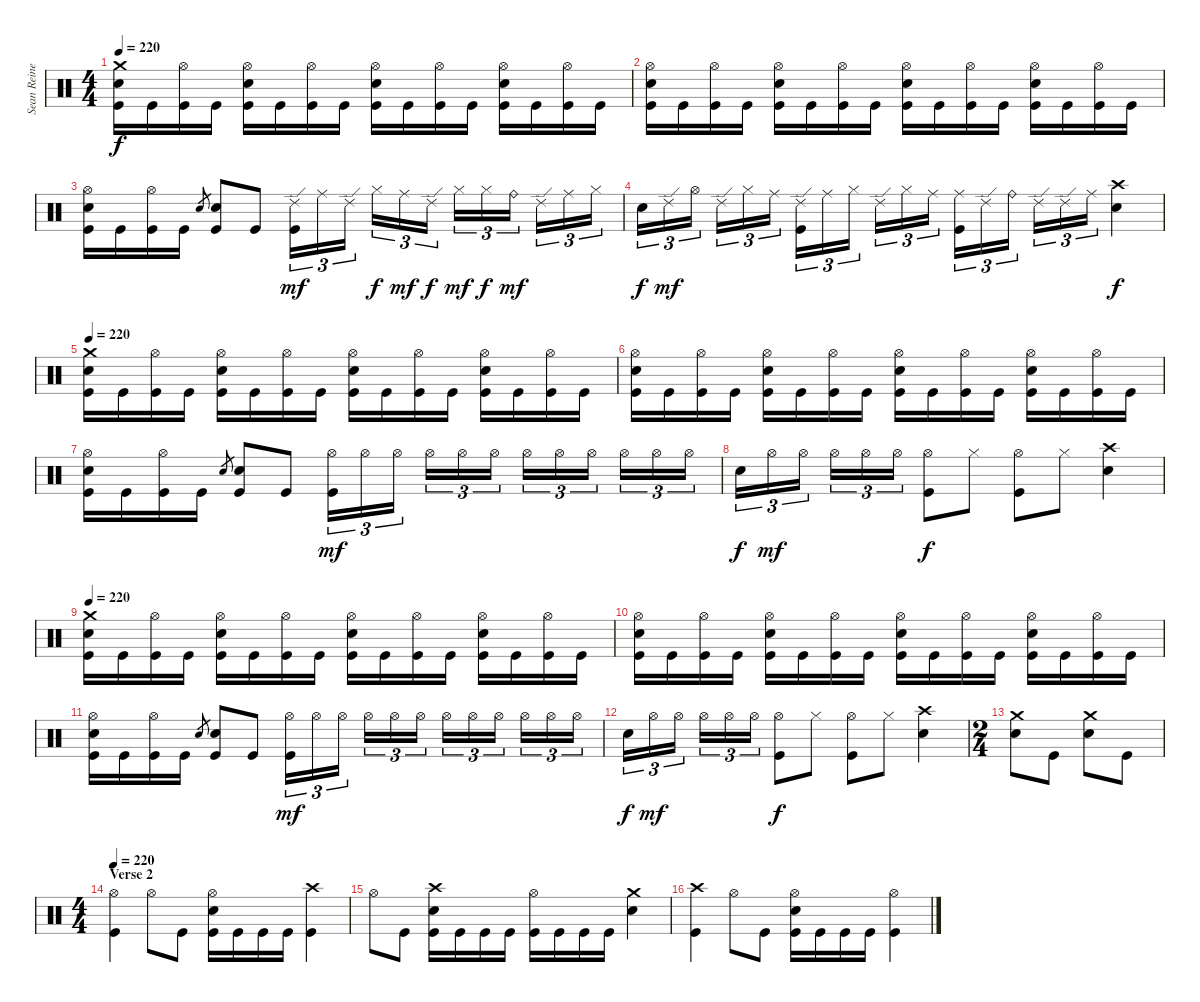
\track ("Sean Reinert " "Sean Reine") {instrument percussion}
\staff {score}
\articulation defaults
\ts (4 4)
\tempo 220
\clef neutral
\ks c
("Crash medium (hit)" "Electric Snare (hit)" "Kick (hit)").16{dy f} "Kick (hit)".16 ("Hi-Hat (open)" "Kick (hit)").16 "Kick (hit)".16 ("Hi-Hat (open)" "Electric Snare (hit)" "Kick (hit)").16 "Kick (hit)".16 ("Hi-Hat (open)" "Kick (hit)").16 "Kick (hit)".16 ("Hi-Hat (open)" "Electric Snare (hit)" "Kick (hit)").16 "Kick (hit)".16 ("Hi-Hat (open)" "Kick (hit)").16 "Kick (hit)".16 ("Hi-Hat (open)" "Electric Snare (hit)" "Kick (hit)").16 "Kick (hit)".16 ("Hi-Hat (open)" "Kick (hit)").16 "Kick (hit)".16 |
("Hi-Hat (open)" "Electric Snare (hit)" "Kick (hit)").16 "Kick (hit)".16 ("Hi-Hat (open)" "Kick (hit)").16 "Kick (hit)".16 ("Hi-Hat (open)" "Electric Snare (hit)" "Kick (hit)").16 "Kick (hit)".16 ("Hi-Hat (open)" "Kick (hit)").16 "Kick (hit)".16 ("Hi-Hat (open)" "Electric Snare (hit)" "Kick (hit)").16 "Kick (hit)".16 ("Hi-Hat (open)" "Kick (hit)").16 "Kick (hit)".16 ("Hi-Hat (open)" "Electric Snare (hit)" "Kick (hit)").16 "Kick (hit)".16 ("Hi-Hat (open)" "Kick (hit)").16 "Kick (hit)".16 |
("Hi-Hat (open)" "Electric Snare (hit)" "Kick (hit)").16 "Kick (hit)".16 ("Hi-Hat (open)" "Kick (hit)").16 "Kick (hit)".16 "Electric Snare (hit)".8{gr} ("Electric Snare (hit)" "Kick (hit)").8 "Kick (hit)".8 ("Ride (edge) 2" "Kick (hit)").16{tu (3 2) dy mf} "Ride (middle)".16{tu (3 2)} "Ride (edge) 2".16{tu (3 2)} "Hi-Hat (closed)".16{tu (3 2) dy f} "Ride (middle)".16{tu (3 2) dy mf} "Ride (edge) 2".16{tu (3 2) dy f} "Hi-Hat (closed)".16{tu (3 2) dy mf} "Hi-Hat (closed)".16{tu (3 2) dy f} "Ride (bell)".16{tu (3 2) dy mf} "Ride (edge) 2".16{tu (3 2)} "Ride (middle)".16{tu (3 2)} "Hi-Hat (closed)".16{tu (3 2)} |
"Electric Snare (hit)".16{tu (3 2) dy f} "Ride (edge) 2".16{tu (3 2) dy mf} "Hi-Hat (open)".16{tu (3 2)} "Ride (edge) 2".16{tu (3 2)} "Hi-Hat (closed)".16{tu (3 2)} "Ride (middle)".16{tu (3 2)} ("Ride (edge) 2" "Kick (hit)").16{tu (3 2)} "Ride (middle)".16{tu (3 2)} "Hi-Hat (closed)".16{tu (3 2)} "Ride (edge) 2".16{tu (3 2)} "Hi-Hat (closed)".16{tu (3 2)} "Ride (middle)".16{tu (3 2)} ("Ride (middle)" "Kick (hit)").16{tu (3 2)} "Ride (edge) 2".16{tu (3 2)} "Ride (bell)".16{tu (3 2)} "Ride (edge) 2".16{tu (3 2)} "Ride (edge) 2".16{tu (3 2)} "Ride (middle)".16{tu (3 2)} ("Crash high (hit)" "Electric Snare (hit)").4{dy f} |
\tempo 220
("Crash medium (hit)" "Electric Snare (hit)" "Kick (hit)").16 "Kick (hit)".16 ("Hi-Hat (open)" "Kick (hit)").16 "Kick (hit)".16 ("Hi-Hat (open)" "Electric Snare (hit)" "Kick (hit)").16 "Kick (hit)".16 ("Hi-Hat (open)" "Kick (hit)").16 "Kick (hit)".16 ("Hi-Hat (open)" "Electric Snare (hit)" "Kick (hit)").16 "Kick (hit)".16 ("Hi-Hat (open)" "Kick (hit)").16 "Kick (hit)".16 ("Hi-Hat (open)" "Electric Snare (hit)" "Kick (hit)").16 "Kick (hit)".16 ("Hi-Hat (open)" "Kick (hit)").16 "Kick (hit)".16 |
("Hi-Hat (open)" "Electric Snare (hit)" "Kick (hit)").16 "Kick (hit)".16 ("Hi-Hat (open)" "Kick (hit)").16 "Kick (hit)".16 ("Hi-Hat (open)" "Electric Snare (hit)" "Kick (hit)").16 "Kick (hit)".16 ("Hi-Hat (open)" "Kick (hit)").16 "Kick (hit)".16 ("Hi-Hat (open)" "Electric Snare (hit)" "Kick (hit)").16 "Kick (hit)".16 ("Hi-Hat (open)" "Kick (hit)").16 "Kick (hit)".16 ("Hi-Hat (open)" "Electric Snare (hit)" "Kick (hit)").16 "Kick (hit)".16 ("Hi-Hat (open)" "Kick (hit)").16 "Kick (hit)".16 |
("Hi-Hat (open)" "Electric Snare (hit)" "Kick (hit)").16 "Kick (hit)".16 ("Hi-Hat (open)" "Kick (hit)").16 "Kick (hit)".16 "Electric Snare (hit)".8{gr} ("Electric Snare (hit)" "Kick (hit)").8 "Kick (hit)".8 ("Hi-Hat (open)" "Kick (hit)").16{tu (3 2) dy mf} "Hi-Hat (open)".16{tu (3 2)} "Hi-Hat (open)".16{tu (3 2)} "Hi-Hat (open)".16{tu (3 2)} "Hi-Hat (open)".16{tu (3 2)} "Hi-Hat (open)".16{tu (3 2)} "Hi-Hat (open)".16{tu (3 2)} "Hi-Hat (open)".16{tu (3 2)} "Hi-Hat (open)".16{tu (3 2)} "Hi-Hat (open)".16{tu (3 2)} "Hi-Hat (open)".16{tu (3 2)} "Hi-Hat (open)".16{tu (3 2)} |
"Electric Snare (hit)".16{tu (3 2) dy f} "Hi-Hat (open)".16{tu (3 2) dy mf} "Hi-Hat (open)".16{tu (3 2)} "Hi-Hat (open)".16{tu (3 2)} "Hi-Hat (open)".16{tu (3 2)} "Hi-Hat (open)".16{tu (3 2)} ("Hi-Hat (open)" "Kick (hit)").8{dy f} "Hi-Hat (closed)".8 ("Hi-Hat (open)" "Kick (hit)").8 "Hi-Hat (closed)".8 ("Crash high (hit)" "Electric Snare (hit)").4 |
\tempo 220
("Crash medium (hit)" "Electric Snare (hit)" "Kick (hit)").16 "Kick (hit)".16 ("Hi-Hat (open)" "Kick (hit)").16 "Kick (hit)".16 ("Hi-Hat (open)" "Electric Snare (hit)" "Kick (hit)").16 "Kick (hit)".16 ("Hi-Hat (open)" "Kick (hit)").16 "Kick (hit)".16 ("Hi-Hat (open)" "Electric Snare (hit)" "Kick (hit)").16 "Kick (hit)".16 ("Hi-Hat (open)" "Kick (hit)").16 "Kick (hit)".16 ("Hi-Hat (open)" "Electric Snare (hit)" "Kick (hit)").16 "Kick (hit)".16 ("Hi-Hat (open)" "Kick (hit)").16 "Kick (hit)".16 |
("Hi-Hat (open)" "Electric Snare (hit)" "Kick (hit)").16 "Kick (hit)".16 ("Hi-Hat (open)" "Kick (hit)").16 "Kick (hit)".16 ("Hi-Hat (open)" "Electric Snare (hit)" "Kick (hit)").16 "Kick (hit)".16 ("Hi-Hat (open)" "Kick (hit)").16 "Kick (hit)".16 ("Hi-Hat (open)" "Electric Snare (hit)" "Kick (hit)").16 "Kick (hit)".16 ("Hi-Hat (open)" "Kick (hit)").16 "Kick (hit)".16 ("Hi-Hat (open)" "Electric Snare (hit)" "Kick (hit)").16 "Kick (hit)".16 ("Hi-Hat (open)" "Kick (hit)").16 "Kick (hit)".16 |
("Hi-Hat (open)" "Electric Snare (hit)" "Kick (hit)").16 "Kick (hit)".16 ("Hi-Hat (open)" "Kick (hit)").16 "Kick (hit)".16 "Electric Snare (hit)".8{gr} ("Electric Snare (hit)" "Kick (hit)").8 "Kick (hit)".8 ("Hi-Hat (open)" "Kick (hit)").16{tu (3 2) dy mf} "Hi-Hat (open)".16{tu (3 2)} "Hi-Hat (open)".16{tu (3 2)} "Hi-Hat (open)".16{tu (3 2)} "Hi-Hat (open)".16{tu (3 2)} "Hi-Hat (open)".16{tu (3 2)} "Hi-Hat (open)".16{tu (3 2)} "Hi-Hat (open)".16{tu (3 2)} "Hi-Hat (open)".16{tu (3 2)} "Hi-Hat (open)".16{tu (3 2)} "Hi-Hat (open)".16{tu (3 2)} "Hi-Hat (open)".16{tu (3 2)} |
"Electric Snare (hit)".16{tu (3 2) dy f} "Hi-Hat (open)".16{tu (3 2) dy mf} "Hi-Hat (open)".16{tu (3 2)} "Hi-Hat (open)".16{tu (3 2)} "Hi-Hat (open)".16{tu (3 2)} "Hi-Hat (open)".16{tu (3 2)} ("Hi-Hat (open)" "Kick (hit)").8{dy f} "Hi-Hat (closed)".8 ("Hi-Hat (open)" "Kick (hit)").8 "Hi-Hat (closed)".8 ("Crash high (hit)" "Electric Snare (hit)").4 |
\ts (2 4)
("Crash medium (hit)" "Electric Snare (hit)").8 "Kick (hit)".8 ("Crash medium (hit)" "Electric Snare (hit)").8 "Kick (hit)".8 |
\ts (4 4)
\section ("" "Verse 2")
\tempo 220
("Hi-Hat (open)" "Kick (hit)").4 "Hi-Hat (open)".8 "Kick (hit)".8 ("Hi-Hat (open)" "Electric Snare (hit)" "Kick (hit)").16 "Kick (hit)".16 "Kick (hit)".16 "Kick (hit)".16 ("Crash high (hit)" "Kick (hit)").4 |
"Hi-Hat (open)".8 "Kick (hit)".8 ("Crash high (hit)" "Electric Snare (hit)" "Kick (hit)").16 "Kick (hit)".16 "Kick (hit)".16 "Kick (hit)".16 ("Hi-Hat (open)" "Kick (hit)").16 "Kick (hit)".16 "Kick (hit)".16 "Kick (hit)".16 ("Crash medium (hit)" "Electric Snare (hit)").4 |
("Crash high (hit)" "Kick (hit)").4 "Hi-Hat (open)".8 "Kick (hit)".8 ("Hi-Hat (open)" "Electric Snare (hit)" "Kick (hit)").16 "Kick (hit)".16 "Kick (hit)".16 "Kick (hit)".16 ("Hi-Hat (open)" "Kick (hit)").4
